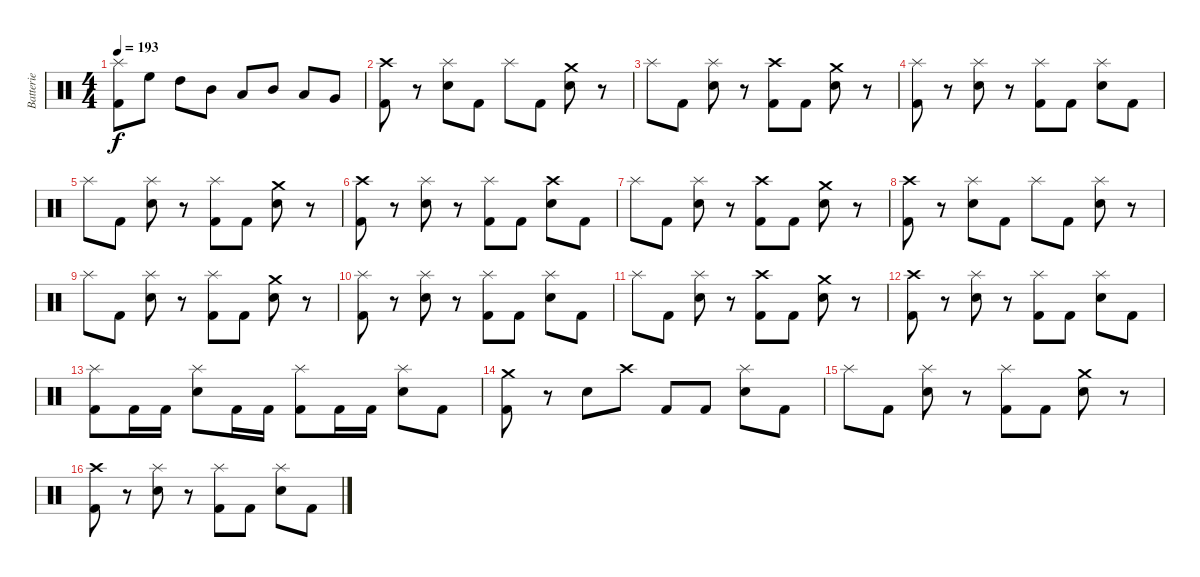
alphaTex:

\track ("Batterie" "Batterie") {instrument percussion}
\staff {score}
\articulation defaults
\ts (4 4)
\tempo 193
\clef neutral
\ks c
("Kick (hit) 2" "Splash (hit)").8{dy f} "High Floor Tom (hit)".8 "High Tom (hit)".8 "Mid Tom (hit)".8 "Low Tom (hit)".8 "Mid Tom (hit)".8 "Low Tom (hit)".8 "Very Low Tom (hit)".8 |
("Kick (hit) 2" "Crash high (hit)").8 r.8 ("Electric Snare (hit)" "Splash (hit)").8 "Kick (hit) 2".8 "Splash (hit)".8 "Kick (hit) 2".8 ("Electric Snare (hit)" "Crash medium (hit)").8 r.8 |
"Splash (hit)".8 "Kick (hit) 2".8 ("Electric Snare (hit)" "Splash (hit)").8 r.8 ("Kick (hit) 2" "Crash high (hit)").8 "Kick (hit) 2".8 ("Electric Snare (hit)" "Crash medium (hit)").8 r.8 |
("Kick (hit) 2" "Splash (hit)").8 r.8 ("Electric Snare (hit)" "Splash (hit)").8 r.8 ("Kick (hit) 2" "Splash (hit)").8 "Kick (hit) 2".8 ("Electric Snare (hit)" "Splash (hit)").8 "Kick (hit) 2".8 |
"Splash (hit)".8 "Kick (hit) 2".8 ("Electric Snare (hit)" "Splash (hit)").8 r.8 ("Kick (hit) 2" "Splash (hit)").8 "Kick (hit) 2".8 ("Electric Snare (hit)" "Crash medium (hit)").8 r.8 |
("Kick (hit) 2" "Crash high (hit)").8 r.8 ("Electric Snare (hit)" "Splash (hit)").8 r.8 ("Kick (hit) 2" "Splash (hit)").8 "Kick (hit) 2".8 ("Electric Snare (hit)" "Crash high (hit)").8 "Kick (hit) 2".8 |
"Splash (hit)".8 "Kick (hit) 2".8 ("Electric Snare (hit)" "Splash (hit)").8 r.8 ("Kick (hit) 2" "Crash high (hit)").8 "Kick (hit) 2".8 ("Electric Snare (hit)" "Crash medium (hit)").8 r.8 |
("Kick (hit) 2" "Crash high (hit)").8 r.8 ("Electric Snare (hit)" "Splash (hit)").8 "Kick (hit) 2".8 "Splash (hit)".8 "Kick (hit) 2".8 ("Electric Snare (hit)" "Splash (hit)").8 r.8 |
"Splash (hit)".8 "Kick (hit) 2".8 ("Electric Snare (hit)" "Splash (hit)").8 r.8 ("Kick (hit) 2" "Splash (hit)").8 "Kick (hit) 2".8 ("Electric Snare (hit)" "Crash medium (hit)").8 r.8 |
("Kick (hit) 2" "Splash (hit)").8 r.8 ("Electric Snare (hit)" "Splash (hit)").8 r.8 ("Kick (hit) 2" "Splash (hit)").8 "Kick (hit) 2".8 ("Electric Snare (hit)" "Splash (hit)").8 "Kick (hit) 2".8 |
"Splash (hit)".8 "Kick (hit) 2".8 ("Electric Snare (hit)" "Splash (hit)").8 r.8 ("Kick (hit) 2" "Crash high (hit)").8 "Kick (hit) 2".8 ("Electric Snare (hit)" "Crash medium (hit)").8 r.8 |
("Kick (hit) 2" "Crash high (hit)").8 r.8 ("Electric Snare (hit)" "Splash (hit)").8 r.8 ("Kick (hit) 2" "Splash (hit)").8 "Kick (hit) 2".8 ("Electric Snare (hit)" "Splash (hit)").8 "Kick (hit) 2".8 |
("Kick (hit) 2" "Splash (hit)").8 "Kick (hit) 2".16 "Kick (hit) 2".16 ("Electric Snare (hit)" "Splash (hit)").8 "Kick (hit) 2".16 "Kick (hit) 2".16 ("Kick (hit) 2" "Splash (hit)").8 "Kick (hit) 2".16 "Kick (hit) 2".16 ("Electric Snare (hit)" "Splash (hit)").8 "Kick (hit) 2".8 |
("Kick (hit) 2" "Crash medium (hit)").8 r.8 "Electric Snare (hit)".8 "Crash high (hit)".8 "Kick (hit) 2".8 "Kick (hit) 2".8 ("Electric Snare (hit)" "Splash (hit)").8 "Kick (hit) 2".8 |
"Splash (hit)".8 "Kick (hit) 2".8 ("Electric Snare (hit)" "Splash (hit)").8 r.8 ("Kick (hit) 2" "Splash (hit)").8 "Kick (hit) 2".8 ("Electric Snare (hit)" "Crash medium (hit)").8 r.8 |
("Kick (hit) 2" "Crash high (hit)").8 r.8 ("Electric Snare (hit)" "Splash (hit)").8 r.8 ("Kick (hit) 2" "Splash (hit)").8 "Kick (hit) 2".8 ("Electric Snare (hit)" "Splash (hit)").8 "Kick (hit) 2".8
